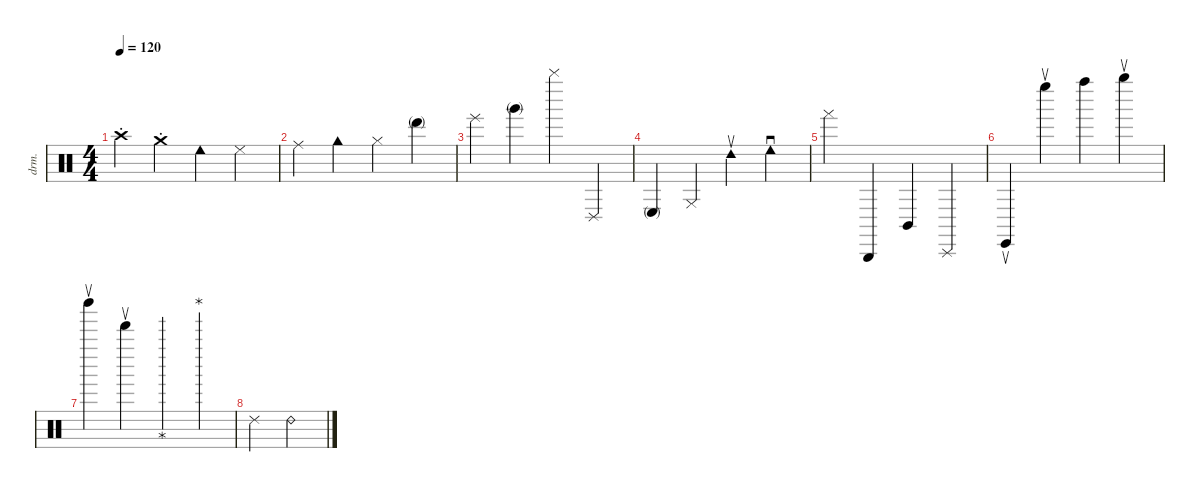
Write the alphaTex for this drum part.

\defaultSystemsLayout 4
\hideDynamics
\bracketExtendMode nobrackets
\otherSystemsTrackNameOrientation horizontal
\track ("Drumkit" "drm.") {instrument percussion}
\staff {score}
\articulation defaults
\ts (4 4)
\tempo 120
\clef neutral
\ks c "Crash high (choke)".4{dy mf beam Down} "Crash medium (choke)".4{beam Down} "Cowbell low (hit)".4{beam Down} "Cowbell low (tip)".4{beam Down}
|
"Cowbell medium (tip)".4{beam Down} "Cowbell high (hit)".4{beam Down} "Cowbell high (tip)".4{beam Down} "Hand (mute)".4{beam Down} |
"Hand (slap)".4{beam Down} "Hand (mute) 2".4{beam Down} "Hand (slap) 2".4{beam Down} "Conga low (slap)".4{beam Up} |
"Conga low (mute)".4{beam Up} "Conga high (slap)".4{beam Up} "Tambourine (return)".4{beam Down} "Tambourine (roll)".4{beam Down} |
"Tambourine (hand)".4{beam Down} "Grancassa (hit)".4{beam Up} "Piatti (hat)".4{beam Up} "Piatti (hand)".4{beam Up} |
"Cabasa (return)".4{beam Up} "Left Maraca (return)".4{beam Down} "Right Maraca (hit)".4{beam Down} "Right Maraca (return)".4{beam Down} |
"Shaker (return)".4{beam Down} "Bell Tee (return)".4{beam Down} "Golpe (thumb)".4{beam Down} "Golpe (finger)".4{beam Down} |
"Ride (middle) 2".4{beam Down} "Ride (bell) 2".4{beam Down}
